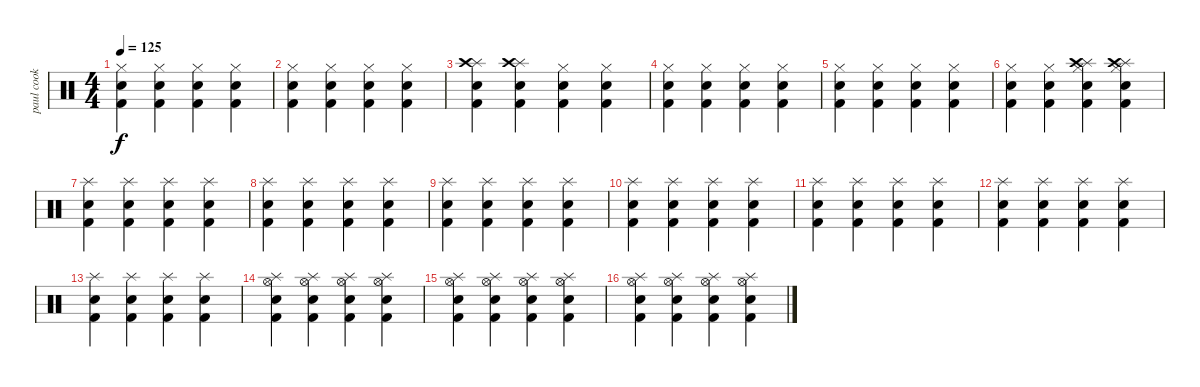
\track ("paul cook" "paul cook") {instrument percussion}
\staff {score}
\articulation defaults
\ts (4 4)
\tempo 125
\clef neutral
\ks c
("Hi-Hat (closed)" "Kick (hit) 2" "Snare (hit) 2").4{dy f} ("Hi-Hat (closed)" "Kick (hit) 2" "Snare (hit) 2").4 ("Hi-Hat (closed)" "Kick (hit) 2" "Snare (hit) 2").4 ("Hi-Hat (closed)" "Kick (hit) 2" "Snare (hit) 2").4 |
("Hi-Hat (closed)" "Kick (hit) 2" "Snare (hit) 2").4 ("Hi-Hat (closed)" "Kick (hit) 2" "Snare (hit) 2").4 ("Hi-Hat (closed)" "Kick (hit) 2" "Snare (hit) 2").4 ("Hi-Hat (closed)" "Kick (hit) 2" "Snare (hit) 2").4 |
("Splash (hit)" "Kick (hit) 2" "Snare (hit) 2" "Crash high (hit)").4 ("Splash (hit)" "Kick (hit) 2" "Snare (hit) 2" "Crash high (hit)").4 ("Hi-Hat (closed)" "Kick (hit) 2" "Snare (hit) 2").4 ("Hi-Hat (closed)" "Kick (hit) 2" "Snare (hit) 2").4 |
("Hi-Hat (closed)" "Kick (hit) 2" "Snare (hit) 2").4 ("Hi-Hat (closed)" "Kick (hit) 2" "Snare (hit) 2").4 ("Hi-Hat (closed)" "Kick (hit) 2" "Snare (hit) 2").4 ("Hi-Hat (closed)" "Kick (hit) 2" "Snare (hit) 2").4 |
("Hi-Hat (closed)" "Kick (hit) 2" "Snare (hit) 2").4 ("Hi-Hat (closed)" "Kick (hit) 2" "Snare (hit) 2").4 ("Hi-Hat (closed)" "Kick (hit) 2" "Snare (hit) 2").4 ("Hi-Hat (closed)" "Kick (hit) 2" "Snare (hit) 2").4 |
("Hi-Hat (closed)" "Kick (hit) 2" "Snare (hit) 2").4 ("Hi-Hat (closed)" "Kick (hit) 2" "Snare (hit) 2").4 ("Splash (hit)" "Hi-Hat (closed)" "Kick (hit) 2" "Snare (hit) 2" "Crash high (hit)").4 ("Splash (hit)" "Hi-Hat (closed)" "Kick (hit) 2" "Snare (hit) 2" "Crash high (hit)").4 |
("Kick (hit) 2" "Snare (hit) 2" "Splash (hit)").4 ("Kick (hit) 2" "Snare (hit) 2" "Splash (hit)").4 ("Kick (hit) 2" "Snare (hit) 2" "Splash (hit)").4 ("Kick (hit) 2" "Snare (hit) 2" "Splash (hit)").4 |
("Kick (hit) 2" "Snare (hit) 2" "Splash (hit)").4 ("Kick (hit) 2" "Snare (hit) 2" "Splash (hit)").4 ("Kick (hit) 2" "Snare (hit) 2" "Splash (hit)").4 ("Kick (hit) 2" "Snare (hit) 2" "Splash (hit)").4 |
("Kick (hit) 2" "Snare (hit) 2" "Splash (hit)").4 ("Kick (hit) 2" "Snare (hit) 2" "Splash (hit)").4 ("Kick (hit) 2" "Snare (hit) 2" "Splash (hit)").4 ("Kick (hit) 2" "Snare (hit) 2" "Splash (hit)").4 |
("Kick (hit) 2" "Snare (hit) 2" "Splash (hit)").4 ("Kick (hit) 2" "Snare (hit) 2" "Splash (hit)").4 ("Kick (hit) 2" "Snare (hit) 2" "Splash (hit)").4 ("Kick (hit) 2" "Snare (hit) 2" "Splash (hit)").4 |
("Kick (hit) 2" "Snare (hit) 2" "Splash (hit)").4 ("Kick (hit) 2" "Snare (hit) 2" "Splash (hit)").4 ("Kick (hit) 2" "Snare (hit) 2" "Splash (hit)").4 ("Kick (hit) 2" "Snare (hit) 2" "Splash (hit)").4 |
("Kick (hit) 2" "Snare (hit) 2" "Splash (hit)").4 ("Kick (hit) 2" "Snare (hit) 2" "Splash (hit)").4 ("Kick (hit) 2" "Snare (hit) 2" "Splash (hit)").4 ("Kick (hit) 2" "Snare (hit) 2" "Splash (hit)").4 |
("Kick (hit) 2" "Snare (hit) 2" "Splash (hit)").4 ("Kick (hit) 2" "Snare (hit) 2" "Splash (hit)").4 ("Kick (hit) 2" "Snare (hit) 2" "Splash (hit)").4 ("Kick (hit) 2" "Snare (hit) 2" "Splash (hit)").4 |
("Splash (hit)" "Snare (hit) 2" "Kick (hit) 2" "Hi-Hat (open)").4 ("Splash (hit)" "Snare (hit) 2" "Kick (hit) 2" "Hi-Hat (open)").4 ("Splash (hit)" "Snare (hit) 2" "Kick (hit) 2" "Hi-Hat (open)").4 ("Splash (hit)" "Snare (hit) 2" "Kick (hit) 2" "Hi-Hat (open)").4 |
("Splash (hit)" "Snare (hit) 2" "Kick (hit) 2" "Hi-Hat (open)").4 ("Splash (hit)" "Snare (hit) 2" "Kick (hit) 2" "Hi-Hat (open)").4 ("Splash (hit)" "Snare (hit) 2" "Kick (hit) 2" "Hi-Hat (open)").4 ("Splash (hit)" "Snare (hit) 2" "Kick (hit) 2" "Hi-Hat (open)").4 |
("Splash (hit)" "Snare (hit) 2" "Kick (hit) 2" "Hi-Hat (open)").4 ("Splash (hit)" "Snare (hit) 2" "Kick (hit) 2" "Hi-Hat (open)").4 ("Splash (hit)" "Snare (hit) 2" "Kick (hit) 2" "Hi-Hat (open)").4 ("Splash (hit)" "Snare (hit) 2" "Kick (hit) 2" "Hi-Hat (open)").4
